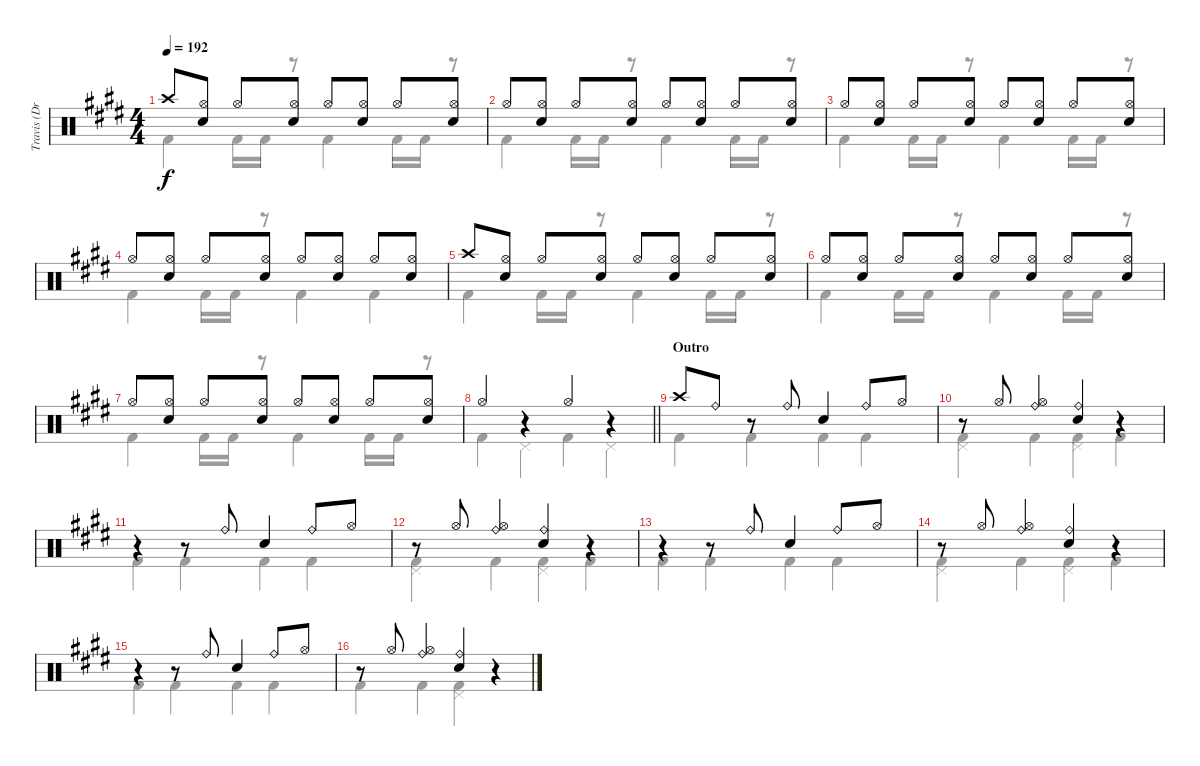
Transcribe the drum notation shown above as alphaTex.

\track ("Travis (Drums)" "Travis (Dr") {instrument percussion}
\staff {score}
\articulation defaults
\voice
\ts (4 4)
\tempo 192
\clef neutral
\ks e "Crash high (hit)".8{dy f}
("Hi-Hat (open)" "Electric Snare (hit)").8 "Hi-Hat (open)".8 ("Hi-Hat (open)" "Electric Snare (hit)").8 "Hi-Hat (open)".8 ("Hi-Hat (open)" "Electric Snare (hit)").8 "Hi-Hat (open)".8 ("Hi-Hat (open)" "Electric Snare (hit)").8 |
"Hi-Hat (open)".8 ("Hi-Hat (open)" "Electric Snare (hit)").8 "Hi-Hat (open)".8 ("Hi-Hat (open)" "Electric Snare (hit)").8 "Hi-Hat (open)".8 ("Hi-Hat (open)" "Electric Snare (hit)").8 "Hi-Hat (open)".8 ("Hi-Hat (open)" "Electric Snare (hit)").8 |
"Hi-Hat (open)".8 ("Hi-Hat (open)" "Electric Snare (hit)").8 "Hi-Hat (open)".8 ("Hi-Hat (open)" "Electric Snare (hit)").8 "Hi-Hat (open)".8 ("Hi-Hat (open)" "Electric Snare (hit)").8 "Hi-Hat (open)".8 ("Hi-Hat (open)" "Electric Snare (hit)").8 |
"Hi-Hat (open)".8 ("Hi-Hat (open)" "Electric Snare (hit)").8 "Hi-Hat (open)".8 ("Hi-Hat (open)" "Electric Snare (hit)").8 "Hi-Hat (open)".8 ("Hi-Hat (open)" "Electric Snare (hit)").8 "Hi-Hat (open)".8 ("Hi-Hat (open)" "Electric Snare (hit)").8 |
"Crash high (hit)".8 ("Hi-Hat (open)" "Electric Snare (hit)").8 "Hi-Hat (open)".8 ("Hi-Hat (open)" "Electric Snare (hit)").8 "Hi-Hat (open)".8 ("Hi-Hat (open)" "Electric Snare (hit)").8 "Hi-Hat (open)".8 ("Hi-Hat (open)" "Electric Snare (hit)").8 |
"Hi-Hat (open)".8 ("Hi-Hat (open)" "Electric Snare (hit)").8 "Hi-Hat (open)".8 ("Hi-Hat (open)" "Electric Snare (hit)").8 "Hi-Hat (open)".8 ("Hi-Hat (open)" "Electric Snare (hit)").8 "Hi-Hat (open)".8 ("Hi-Hat (open)" "Electric Snare (hit)").8 |
"Hi-Hat (open)".8 ("Hi-Hat (open)" "Electric Snare (hit)").8 "Hi-Hat (open)".8 ("Hi-Hat (open)" "Electric Snare (hit)").8 "Hi-Hat (open)".8 ("Hi-Hat (open)" "Electric Snare (hit)").8 "Hi-Hat (open)".8 ("Hi-Hat (open)" "Electric Snare (hit)").8 |
\barLineRight lightlight "Hi-Hat (open)".4
r.4 "Hi-Hat (open)".4 r.4 |
\section ("" "Outro")
"Crash high (hit)".8 "Ride (bell)".8 r.8 "Ride (bell)".8 "Electric Snare (hit)".4 "Ride (bell)".8 "Hi-Hat (open)".8 |
r.8 "Hi-Hat (open)".8 ("Ride (bell)" "Hi-Hat (open)").4 ("Ride (bell)" "Electric Snare (hit)").4 r.4 |
r.4 r.8 "Ride (bell)".8 "Electric Snare (hit)".4 "Ride (bell)".8 "Hi-Hat (open)".8 |
r.8 "Hi-Hat (open)".8 ("Ride (bell)" "Hi-Hat (open)").4 ("Ride (bell)" "Electric Snare (hit)").4 r.4 |
r.4 r.8 "Ride (bell)".8 "Electric Snare (hit)".4 "Ride (bell)".8 "Hi-Hat (open)".8 |
r.8 "Hi-Hat (open)".8 ("Ride (bell)" "Hi-Hat (open)").4 ("Ride (bell)" "Electric Snare (hit)").4 r.4 |
r.4 r.8 "Ride (bell)".8 "Electric Snare (hit)".4 "Ride (bell)".8 "Hi-Hat (open)".8 |
r.8 "Hi-Hat (open)".8 ("Ride (bell)" "Hi-Hat (open)").4 ("Ride (bell)" "Electric Snare (hit)").4 r.4
\voice
\clef neutral
\ottava regular
\simile none
\ks e "Kick (hit) 2".4{dy f} "Kick (hit) 2".16 "Kick (hit) 2".16
r.8 "Kick (hit) 2".4 "Kick (hit) 2".16 "Kick (hit) 2".16 r.8 |
"Kick (hit) 2".4 "Kick (hit) 2".16 "Kick (hit) 2".16 r.8 "Kick (hit) 2".4 "Kick (hit) 2".16 "Kick (hit) 2".16 r.8 |
"Kick (hit) 2".4 "Kick (hit) 2".16 "Kick (hit) 2".16 r.8 "Kick (hit) 2".4 "Kick (hit) 2".16 "Kick (hit) 2".16 r.8 |
"Kick (hit) 2".4 "Kick (hit) 2".16 "Kick (hit) 2".16 r.8 "Kick (hit) 2".4 "Kick (hit) 2".4 |
"Kick (hit) 2".4 "Kick (hit) 2".16 "Kick (hit) 2".16 r.8 "Kick (hit) 2".4 "Kick (hit) 2".16 "Kick (hit) 2".16 r.8 |
"Kick (hit) 2".4 "Kick (hit) 2".16 "Kick (hit) 2".16 r.8 "Kick (hit) 2".4 "Kick (hit) 2".16 "Kick (hit) 2".16 r.8 |
"Kick (hit) 2".4 "Kick (hit) 2".16 "Kick (hit) 2".16 r.8 "Kick (hit) 2".4 "Kick (hit) 2".16 "Kick (hit) 2".16 r.8 |
\barLineRight lightlight "Kick (hit) 2".4 "Pedal Hi-Hat (hit)".4 "Kick (hit) 2".4 "Pedal Hi-Hat (hit)".4
|
"Kick (hit) 2".4 "Kick (hit) 2".4 "Kick (hit) 2".4 "Kick (hit) 2".4 |
("Kick (hit) 2" "Pedal Hi-Hat (hit)").4 "Kick (hit) 2".4 ("Kick (hit) 2" "Pedal Hi-Hat (hit)").4 "Kick (hit) 2".4 |
"Kick (hit) 2".4 "Kick (hit) 2".4 "Kick (hit) 2".4 "Kick (hit) 2".4 |
("Kick (hit) 2" "Pedal Hi-Hat (hit)").4 "Kick (hit) 2".4 ("Kick (hit) 2" "Pedal Hi-Hat (hit)").4 "Kick (hit) 2".4 |
"Kick (hit) 2".4 "Kick (hit) 2".4 "Kick (hit) 2".4 "Kick (hit) 2".4 |
("Kick (hit) 2" "Pedal Hi-Hat (hit)").4 "Kick (hit) 2".4 ("Kick (hit) 2" "Pedal Hi-Hat (hit)").4 "Kick (hit) 2".4 |
"Kick (hit) 2".4 "Kick (hit) 2".4 "Kick (hit) 2".4 "Kick (hit) 2".4 |
"Kick (hit) 2".4 "Kick (hit) 2".4 ("Kick (hit) 2" "Pedal Hi-Hat (hit)").4 r.4
